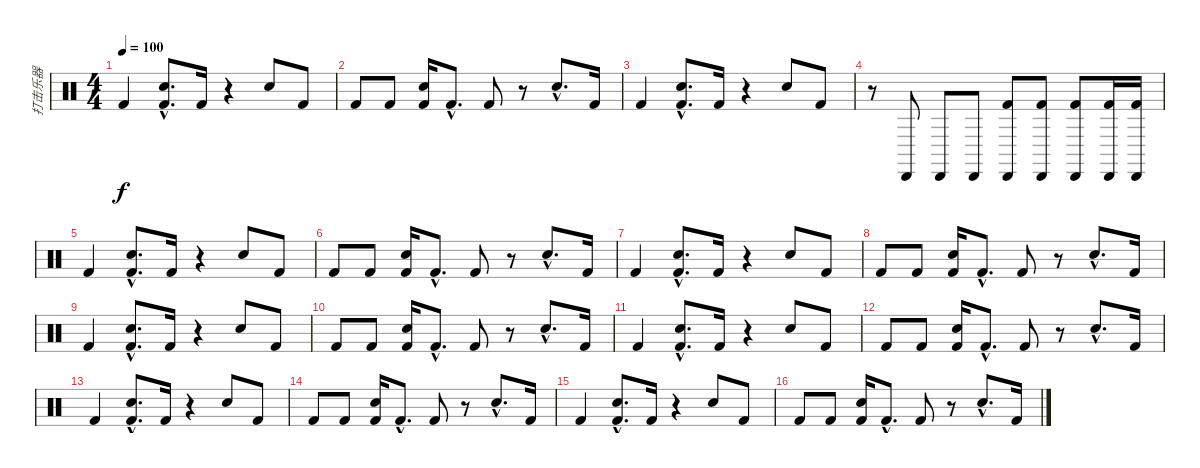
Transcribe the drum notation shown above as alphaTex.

\track ("打击乐器" "打击乐器") {instrument percussion}
\staff {score}
\articulation defaults
\ts (4 4)
\tempo 100
\clef neutral
\ks c "Kick (hit) 2".4{dy f}
("Hand Clap (hit)"{hac} "Kick (hit) 2"{hac}).8{d} "Kick (hit) 2".16 r.4 "Hand Clap (hit)".8 "Kick (hit) 2".8 |
"Kick (hit) 2".8 "Kick (hit) 2".8 ("Hand Clap (hit)" "Kick (hit) 2").16 "Kick (hit) 2"{hac}.8{d} "Kick (hit) 2".8 r.8 "Hand Clap (hit)"{hac}.8{d} "Kick (hit) 2".16 |
"Kick (hit) 2".4 ("Hand Clap (hit)"{hac} "Kick (hit) 2"{hac}).8{d} "Kick (hit) 2".16 r.4 "Hand Clap (hit)".8 "Kick (hit) 2".8 |
r.8 "Cabasa (hit)".8 "Cabasa (hit)".8 "Cabasa (hit)".8 ("Cabasa (hit)" "Kick (hit) 2").8 ("Cabasa (hit)" "Kick (hit) 2").8 ("Cabasa (hit)" "Kick (hit) 2").8 ("Cabasa (hit)" "Kick (hit) 2").16 ("Cabasa (hit)" "Kick (hit) 2").16 |
"Kick (hit) 2".4 ("Hand Clap (hit)"{hac} "Kick (hit) 2"{hac}).8{d} "Kick (hit) 2".16 r.4 "Hand Clap (hit)".8 "Kick (hit) 2".8 |
"Kick (hit) 2".8 "Kick (hit) 2".8 ("Hand Clap (hit)" "Kick (hit) 2").16 "Kick (hit) 2"{hac}.8{d} "Kick (hit) 2".8 r.8 "Hand Clap (hit)"{hac}.8{d} "Kick (hit) 2".16 |
"Kick (hit) 2".4 ("Hand Clap (hit)"{hac} "Kick (hit) 2"{hac}).8{d} "Kick (hit) 2".16 r.4 "Hand Clap (hit)".8 "Kick (hit) 2".8 |
"Kick (hit) 2".8 "Kick (hit) 2".8 ("Hand Clap (hit)" "Kick (hit) 2").16 "Kick (hit) 2"{hac}.8{d} "Kick (hit) 2".8 r.8 "Hand Clap (hit)"{hac}.8{d} "Kick (hit) 2".16 |
"Kick (hit) 2".4 ("Hand Clap (hit)"{hac} "Kick (hit) 2"{hac}).8{d} "Kick (hit) 2".16 r.4 "Hand Clap (hit)".8 "Kick (hit) 2".8 |
"Kick (hit) 2".8 "Kick (hit) 2".8 ("Hand Clap (hit)" "Kick (hit) 2").16 "Kick (hit) 2"{hac}.8{d} "Kick (hit) 2".8 r.8 "Hand Clap (hit)"{hac}.8{d} "Kick (hit) 2".16 |
"Kick (hit) 2".4 ("Hand Clap (hit)"{hac} "Kick (hit) 2"{hac}).8{d} "Kick (hit) 2".16 r.4 "Hand Clap (hit)".8 "Kick (hit) 2".8 |
"Kick (hit) 2".8 "Kick (hit) 2".8 ("Hand Clap (hit)" "Kick (hit) 2").16 "Kick (hit) 2"{hac}.8{d} "Kick (hit) 2".8 r.8 "Hand Clap (hit)"{hac}.8{d} "Kick (hit) 2".16 |
"Kick (hit) 2".4 ("Hand Clap (hit)"{hac} "Kick (hit) 2"{hac}).8{d} "Kick (hit) 2".16 r.4 "Hand Clap (hit)".8 "Kick (hit) 2".8 |
"Kick (hit) 2".8 "Kick (hit) 2".8 ("Hand Clap (hit)" "Kick (hit) 2").16 "Kick (hit) 2"{hac}.8{d} "Kick (hit) 2".8 r.8 "Hand Clap (hit)"{hac}.8{d} "Kick (hit) 2".16 |
"Kick (hit) 2".4 ("Hand Clap (hit)"{hac} "Kick (hit) 2"{hac}).8{d} "Kick (hit) 2".16 r.4 "Hand Clap (hit)".8 "Kick (hit) 2".8 |
"Kick (hit) 2".8 "Kick (hit) 2".8 ("Hand Clap (hit)" "Kick (hit) 2").16 "Kick (hit) 2"{hac}.8{d} "Kick (hit) 2".8 r.8 "Hand Clap (hit)"{hac}.8{d} "Kick (hit) 2".16
